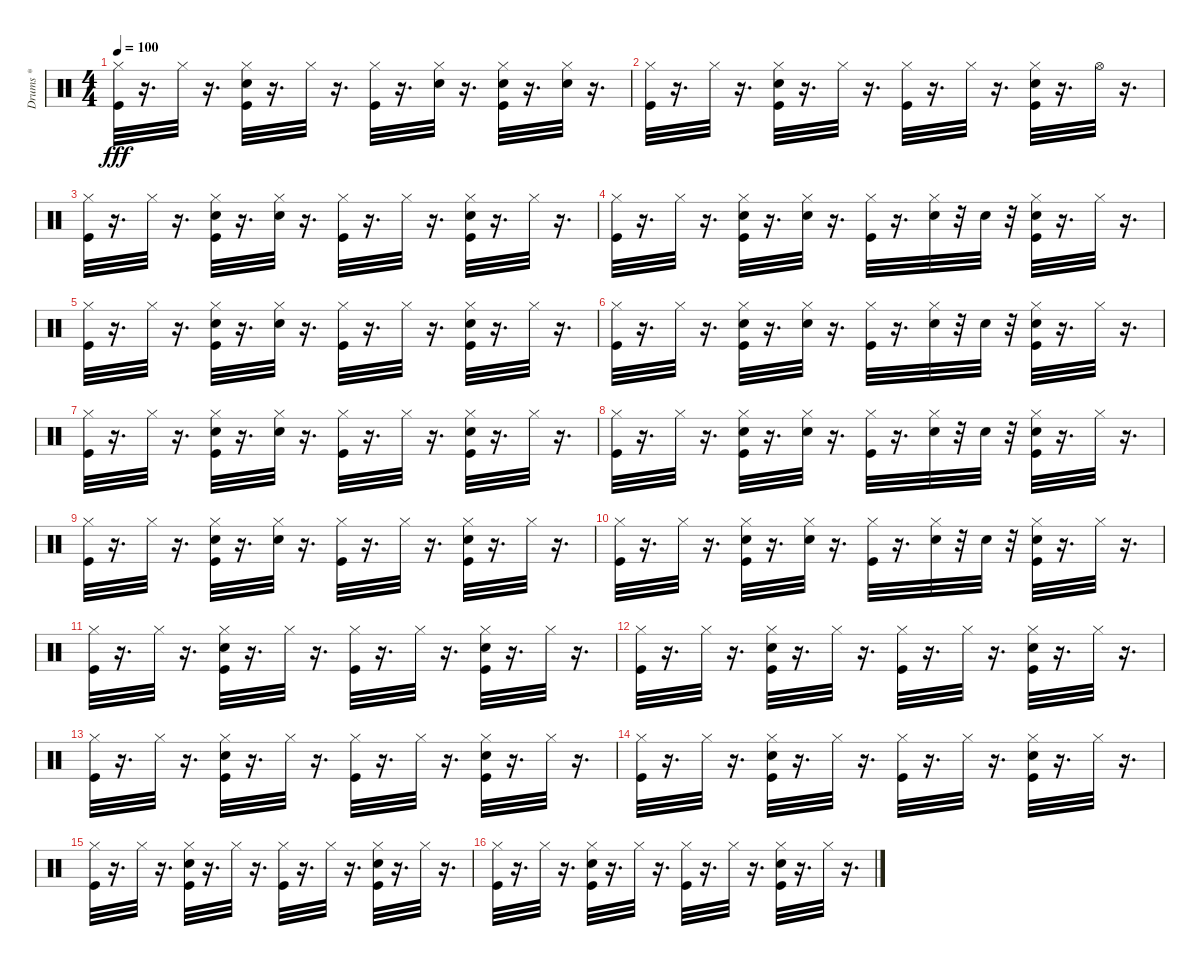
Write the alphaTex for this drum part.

\track ("Drums *" "Drums *") {instrument percussion}
\staff {score}
\articulation defaults
\ts (4 4)
\tempo 100
\clef neutral
\ks c
("Kick (hit)" "Hi-Hat (closed)").32{dy fff} r.16{d} "Hi-Hat (closed)".32 r.16{d} ("Kick (hit)" "Electric Snare (hit)" "Hi-Hat (closed)").32 r.16{d} "Hi-Hat (closed)".32 r.16{d} ("Kick (hit)" "Hi-Hat (closed)").32 r.16{d} ("Electric Snare (hit)" "Hi-Hat (closed)").32 r.16{d} ("Kick (hit)" "Electric Snare (hit)" "Hi-Hat (closed)").32 r.16{d} ("Electric Snare (hit)" "Hi-Hat (closed)").32 r.16{d} |
("Hi-Hat (closed)" "Kick (hit)").32 r.16{d} "Hi-Hat (closed)".32 r.16{d} ("Kick (hit)" "Electric Snare (hit)" "Hi-Hat (closed)").32 r.16{d} "Hi-Hat (closed)".32 r.16{d} ("Kick (hit)" "Hi-Hat (closed)").32 r.16{d} "Hi-Hat (closed)".32 r.16{d} ("Hi-Hat (closed)" "Kick (hit)" "Electric Snare (hit)").32 r.16{d} "Hi-Hat (open)".32 r.16{d} |
("Kick (hit)" "Hi-Hat (closed)").32 r.16{d} "Hi-Hat (closed)".32 r.16{d} ("Kick (hit)" "Snare (hit) 2" "Hi-Hat (closed)").32 r.16{d} ("Hi-Hat (closed)" "Snare (hit) 2").32 r.16{d} ("Kick (hit)" "Hi-Hat (closed)").32 r.16{d} "Hi-Hat (closed)".32 r.16{d} ("Snare (hit) 2" "Kick (hit)" "Hi-Hat (closed)").32 r.16{d} "Hi-Hat (closed)".32 r.16{d} |
("Kick (hit)" "Hi-Hat (closed)").32 r.16{d} "Hi-Hat (closed)".32 r.16{d} ("Hi-Hat (closed)" "Snare (hit) 2" "Kick (hit)").32 r.16{d} ("Hi-Hat (closed)" "Snare (hit) 2").32 r.16{d} ("Hi-Hat (closed)" "Kick (hit)").32 r.16{d} ("Electric Snare (hit)" "Hi-Hat (closed)").32 r.32 "Electric Snare (hit)".32 r.32 ("Hi-Hat (closed)" "Kick (hit)" "Electric Snare (hit)").32 r.16{d} "Hi-Hat (closed)".32 r.16{d} |
("Hi-Hat (closed)" "Kick (hit)").32 r.16{d} "Hi-Hat (closed)".32 r.16{d} ("Kick (hit)" "Hi-Hat (closed)" "Snare (hit) 2").32 r.16{d} ("Hi-Hat (closed)" "Snare (hit) 2").32 r.16{d} ("Kick (hit)" "Hi-Hat (closed)").32 r.16{d} "Hi-Hat (closed)".32 r.16{d} ("Kick (hit)" "Hi-Hat (closed)" "Snare (hit) 2").32 r.16{d} "Hi-Hat (closed)".32 r.16{d} |
("Kick (hit)" "Hi-Hat (closed)").32 r.16{d} "Hi-Hat (closed)".32 r.16{d} ("Snare (hit) 2" "Hi-Hat (closed)" "Kick (hit)").32 r.16{d} ("Hi-Hat (closed)" "Snare (hit) 2").32 r.16{d} ("Kick (hit)" "Hi-Hat (closed)").32 r.16{d} ("Electric Snare (hit)" "Hi-Hat (closed)").32 r.32 "Electric Snare (hit)".32 r.32 ("Electric Snare (hit)" "Hi-Hat (closed)" "Kick (hit)").32 r.16{d} "Hi-Hat (closed)".32 r.16{d} |
("Hi-Hat (closed)" "Kick (hit)").32 r.16{d} "Hi-Hat (closed)".32 r.16{d} ("Snare (hit) 2" "Hi-Hat (closed)" "Kick (hit)").32 r.16{d} ("Snare (hit) 2" "Hi-Hat (closed)").32 r.16{d} ("Kick (hit)" "Hi-Hat (closed)").32 r.16{d} "Hi-Hat (closed)".32 r.16{d} ("Hi-Hat (closed)" "Kick (hit)" "Snare (hit) 2").32 r.16{d} "Hi-Hat (closed)".32 r.16{d} |
("Hi-Hat (closed)" "Kick (hit)").32 r.16{d} "Hi-Hat (closed)".32 r.16{d} ("Kick (hit)" "Hi-Hat (closed)" "Snare (hit) 2").32 r.16{d} ("Hi-Hat (closed)" "Snare (hit) 2").32 r.16{d} ("Kick (hit)" "Hi-Hat (closed)").32 r.16{d} ("Hi-Hat (closed)" "Electric Snare (hit)").32 r.32 "Electric Snare (hit)".32 r.32 ("Hi-Hat (closed)" "Kick (hit)" "Electric Snare (hit)").32 r.16{d} "Hi-Hat (closed)".32 r.16{d} |
("Kick (hit)" "Hi-Hat (closed)").32 r.16{d} "Hi-Hat (closed)".32 r.16{d} ("Kick (hit)" "Hi-Hat (closed)" "Snare (hit) 2").32 r.16{d} ("Snare (hit) 2" "Hi-Hat (closed)").32 r.16{d} ("Kick (hit)" "Hi-Hat (closed)").32 r.16{d} "Hi-Hat (closed)".32 r.16{d} ("Hi-Hat (closed)" "Snare (hit) 2" "Kick (hit)").32 r.16{d} "Hi-Hat (closed)".32 r.16{d} |
("Kick (hit)" "Hi-Hat (closed)").32 r.16{d} "Hi-Hat (closed)".32 r.16{d} ("Hi-Hat (closed)" "Snare (hit) 2" "Kick (hit)").32 r.16{d} ("Hi-Hat (closed)" "Snare (hit) 2").32 r.16{d} ("Hi-Hat (closed)" "Kick (hit)").32 r.16{d} ("Hi-Hat (closed)" "Electric Snare (hit)").32 r.32 "Electric Snare (hit)".32 r.32 ("Hi-Hat (closed)" "Electric Snare (hit)" "Kick (hit)").32 r.16{d} "Hi-Hat (closed)".32 r.16{d} |
("Kick (hit)" "Hi-Hat (closed)").32 r.16{d} "Hi-Hat (closed)".32 r.16{d} ("Electric Snare (hit)" "Kick (hit)" "Hi-Hat (closed)").32 r.16{d} "Hi-Hat (closed)".32 r.16{d} ("Kick (hit)" "Hi-Hat (closed)").32 r.16{d} "Hi-Hat (closed)".32 r.16{d} ("Electric Snare (hit)" "Hi-Hat (closed)" "Kick (hit)").32 r.16{d} "Hi-Hat (closed)".32 r.16{d} |
("Hi-Hat (closed)" "Kick (hit)").32 r.16{d} "Hi-Hat (closed)".32 r.16{d} ("Electric Snare (hit)" "Hi-Hat (closed)" "Kick (hit)").32 r.16{d} "Hi-Hat (closed)".32 r.16{d} ("Kick (hit)" "Hi-Hat (closed)").32 r.16{d} "Hi-Hat (closed)".32 r.16{d} ("Kick (hit)" "Electric Snare (hit)" "Hi-Hat (closed)").32 r.16{d} "Hi-Hat (closed)".32 r.16{d} |
("Kick (hit)" "Hi-Hat (closed)").32 r.16{d} "Hi-Hat (closed)".32 r.16{d} ("Kick (hit)" "Electric Snare (hit)" "Hi-Hat (closed)").32 r.16{d} "Hi-Hat (closed)".32 r.16{d} ("Hi-Hat (closed)" "Kick (hit)").32 r.16{d} "Hi-Hat (closed)".32 r.16{d} ("Kick (hit)" "Electric Snare (hit)" "Hi-Hat (closed)").32 r.16{d} "Hi-Hat (closed)".32 r.16{d} |
("Kick (hit)" "Hi-Hat (closed)").32 r.16{d} "Hi-Hat (closed)".32 r.16{d} ("Kick (hit)" "Electric Snare (hit)" "Hi-Hat (closed)").32 r.16{d} "Hi-Hat (closed)".32 r.16{d} ("Kick (hit)" "Hi-Hat (closed)").32 r.16{d} "Hi-Hat (closed)".32 r.16{d} ("Hi-Hat (closed)" "Kick (hit)" "Electric Snare (hit)").32 r.16{d} "Hi-Hat (closed)".32 r.16{d} |
("Hi-Hat (closed)" "Kick (hit)").32 r.16{d} "Hi-Hat (closed)".32 r.16{d} ("Hi-Hat (closed)" "Kick (hit)" "Electric Snare (hit)").32 r.16{d} "Hi-Hat (closed)".32 r.16{d} ("Hi-Hat (closed)" "Kick (hit)").32 r.16{d} "Hi-Hat (closed)".32 r.16{d} ("Electric Snare (hit)" "Hi-Hat (closed)" "Kick (hit)").32 r.16{d} "Hi-Hat (closed)".32 r.16{d} |
("Kick (hit)" "Hi-Hat (closed)").32 r.16{d} "Hi-Hat (closed)".32 r.16{d} ("Kick (hit)" "Hi-Hat (closed)" "Electric Snare (hit)").32 r.16{d} "Hi-Hat (closed)".32 r.16{d} ("Kick (hit)" "Hi-Hat (closed)").32 r.16{d} "Hi-Hat (closed)".32 r.16{d} ("Hi-Hat (closed)" "Electric Snare (hit)" "Kick (hit)").32 r.16{d} "Hi-Hat (closed)".32 r.16{d}
